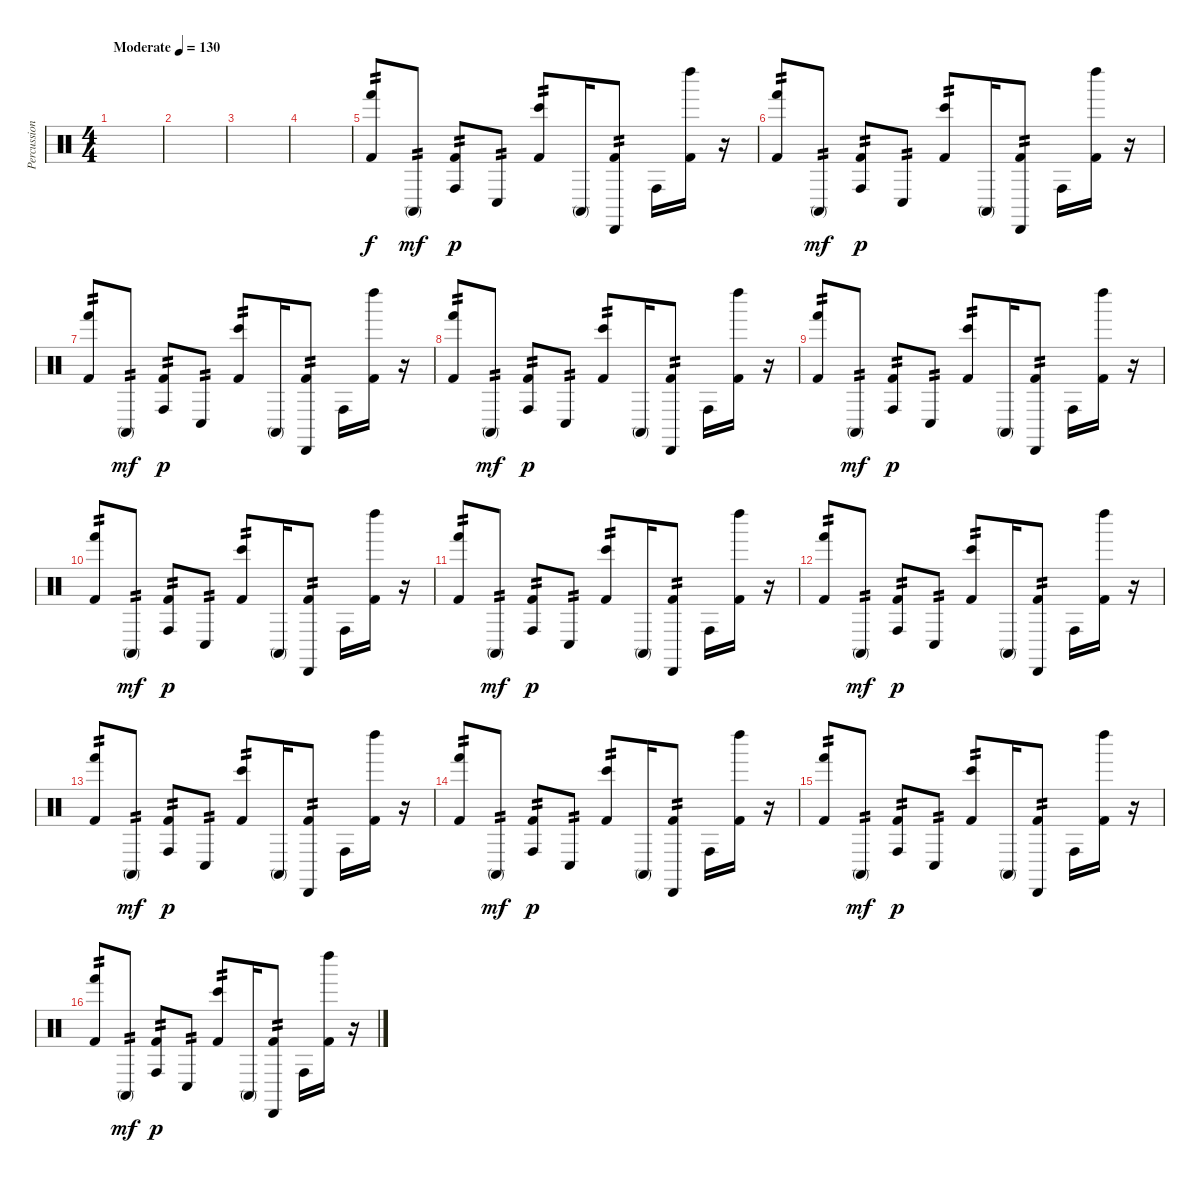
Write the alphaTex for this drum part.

\track ("Percussion" "Percussion") {instrument percussion}
\staff {score}
\articulation defaults
\ts (4 4)
\tempo (130 "Moderate")
\clef neutral
\ks c
|
|
|
|
("Kick (hit) 2" "Hand (hit)").8{tp 2} "Conga high (mute)".8{tp 2 dy mf} ("Kick (hit) 2" "Conga high (hit)").8{tp 2 dy p} "Conga low (hit)".8{tp 2} ("Kick (hit) 2" "Bongo High (hit)").8{tp 2} "Conga high (mute)".16 ("Kick (hit) 2" "Cabasa (hit)").8{tp 2} "Conga high (hit)".16 ("Kick (hit) 2" "Left Maraca (hit)").16 r.16 |
("Kick (hit) 2" "Hand (hit)").8{tp 2} "Conga high (mute)".8{tp 2 dy mf} ("Kick (hit) 2" "Conga high (hit)").8{tp 2 dy p} "Conga low (hit)".8{tp 2} ("Kick (hit) 2" "Bongo High (hit)").8{tp 2} "Conga high (mute)".16 ("Kick (hit) 2" "Cabasa (hit)").8{tp 2} "Conga high (hit)".16 ("Kick (hit) 2" "Left Maraca (hit)").16 r.16 |
("Kick (hit) 2" "Hand (hit)").8{tp 2} "Conga high (mute)".8{tp 2 dy mf} ("Kick (hit) 2" "Conga high (hit)").8{tp 2 dy p} "Conga low (hit)".8{tp 2} ("Kick (hit) 2" "Bongo High (hit)").8{tp 2} "Conga high (mute)".16 ("Kick (hit) 2" "Cabasa (hit)").8{tp 2} "Conga high (hit)".16 ("Kick (hit) 2" "Left Maraca (hit)").16 r.16 |
("Kick (hit) 2" "Hand (hit)").8{tp 2} "Conga high (mute)".8{tp 2 dy mf} ("Kick (hit) 2" "Conga high (hit)").8{tp 2 dy p} "Conga low (hit)".8{tp 2} ("Kick (hit) 2" "Bongo High (hit)").8{tp 2} "Conga high (mute)".16 ("Kick (hit) 2" "Cabasa (hit)").8{tp 2} "Conga high (hit)".16 ("Kick (hit) 2" "Left Maraca (hit)").16 r.16 |
("Kick (hit) 2" "Hand (hit)").8{tp 2} "Conga high (mute)".8{tp 2 dy mf} ("Kick (hit) 2" "Conga high (hit)").8{tp 2 dy p} "Conga low (hit)".8{tp 2} ("Kick (hit) 2" "Bongo High (hit)").8{tp 2} "Conga high (mute)".16 ("Kick (hit) 2" "Cabasa (hit)").8{tp 2} "Conga high (hit)".16 ("Kick (hit) 2" "Left Maraca (hit)").16 r.16 |
("Kick (hit) 2" "Hand (hit)").8{tp 2} "Conga high (mute)".8{tp 2 dy mf} ("Kick (hit) 2" "Conga high (hit)").8{tp 2 dy p} "Conga low (hit)".8{tp 2} ("Kick (hit) 2" "Bongo High (hit)").8{tp 2} "Conga high (mute)".16 ("Kick (hit) 2" "Cabasa (hit)").8{tp 2} "Conga high (hit)".16 ("Kick (hit) 2" "Left Maraca (hit)").16 r.16 |
("Kick (hit) 2" "Hand (hit)").8{tp 2} "Conga high (mute)".8{tp 2 dy mf} ("Kick (hit) 2" "Conga high (hit)").8{tp 2 dy p} "Conga low (hit)".8{tp 2} ("Kick (hit) 2" "Bongo High (hit)").8{tp 2} "Conga high (mute)".16 ("Kick (hit) 2" "Cabasa (hit)").8{tp 2} "Conga high (hit)".16 ("Kick (hit) 2" "Left Maraca (hit)").16 r.16 |
("Kick (hit) 2" "Hand (hit)").8{tp 2} "Conga high (mute)".8{tp 2 dy mf} ("Kick (hit) 2" "Conga high (hit)").8{tp 2 dy p} "Conga low (hit)".8{tp 2} ("Kick (hit) 2" "Bongo High (hit)").8{tp 2} "Conga high (mute)".16 ("Kick (hit) 2" "Cabasa (hit)").8{tp 2} "Conga high (hit)".16 ("Kick (hit) 2" "Left Maraca (hit)").16 r.16 |
("Kick (hit) 2" "Hand (hit)").8{tp 2} "Conga high (mute)".8{tp 2 dy mf} ("Kick (hit) 2" "Conga high (hit)").8{tp 2 dy p} "Conga low (hit)".8{tp 2} ("Kick (hit) 2" "Bongo High (hit)").8{tp 2} "Conga high (mute)".16 ("Kick (hit) 2" "Cabasa (hit)").8{tp 2} "Conga high (hit)".16 ("Kick (hit) 2" "Left Maraca (hit)").16 r.16 |
("Kick (hit) 2" "Hand (hit)").8{tp 2} "Conga high (mute)".8{tp 2 dy mf} ("Kick (hit) 2" "Conga high (hit)").8{tp 2 dy p} "Conga low (hit)".8{tp 2} ("Kick (hit) 2" "Bongo High (hit)").8{tp 2} "Conga high (mute)".16 ("Kick (hit) 2" "Cabasa (hit)").8{tp 2} "Conga high (hit)".16 ("Kick (hit) 2" "Left Maraca (hit)").16 r.16 |
("Kick (hit) 2" "Hand (hit)").8{tp 2} "Conga high (mute)".8{tp 2 dy mf} ("Kick (hit) 2" "Conga high (hit)").8{tp 2 dy p} "Conga low (hit)".8{tp 2} ("Kick (hit) 2" "Bongo High (hit)").8{tp 2} "Conga high (mute)".16 ("Kick (hit) 2" "Cabasa (hit)").8{tp 2} "Conga high (hit)".16 ("Kick (hit) 2" "Left Maraca (hit)").16 r.16 |
("Kick (hit) 2" "Hand (hit)").8{tp 2} "Conga high (mute)".8{tp 2 dy mf} ("Kick (hit) 2" "Conga high (hit)").8{tp 2 dy p} "Conga low (hit)".8{tp 2} ("Kick (hit) 2" "Bongo High (hit)").8{tp 2} "Conga high (mute)".16 ("Kick (hit) 2" "Cabasa (hit)").8{tp 2} "Conga high (hit)".16 ("Kick (hit) 2" "Left Maraca (hit)").16 r.16
